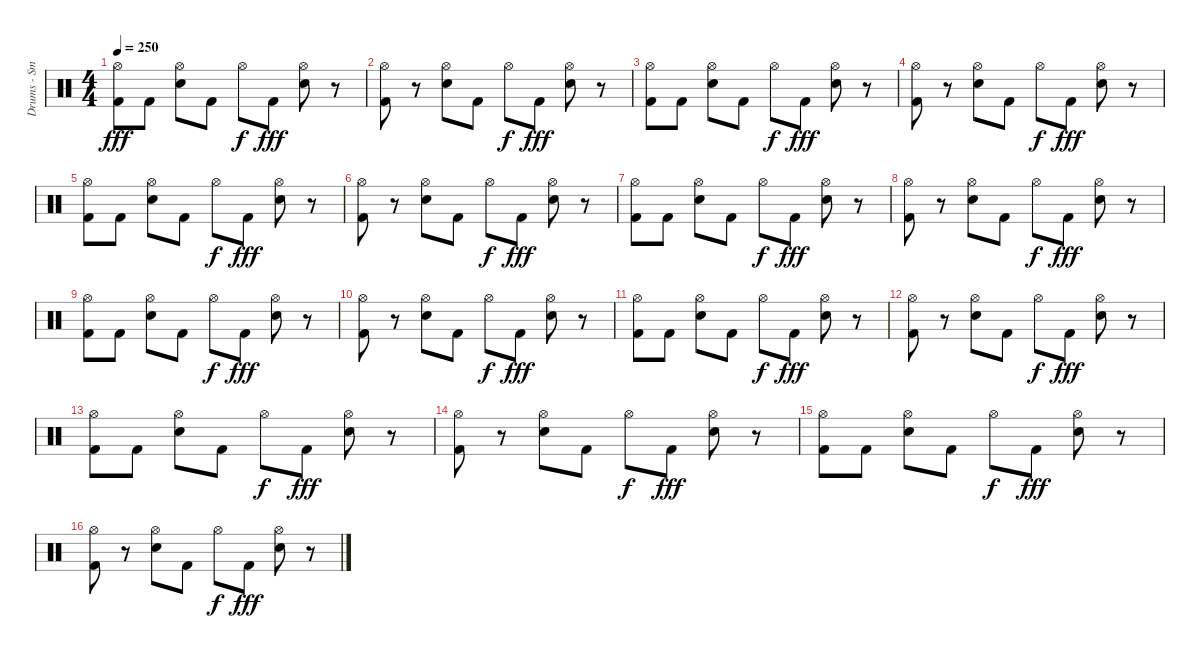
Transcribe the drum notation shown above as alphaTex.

\track ("Drums - Smelly" "Drums - Sm") {instrument percussion}
\staff {score}
\articulation defaults
\ts (4 4)
\tempo 250
\clef neutral
\ks c
("Hi-Hat (open)" "Kick (hit) 2").8{dy fff} "Kick (hit) 2".8 ("Electric Snare (hit)" "Hi-Hat (open)").8 "Kick (hit) 2".8 "Hi-Hat (open)".8{dy f} "Kick (hit) 2".8{dy fff} ("Electric Snare (hit)" "Hi-Hat (open)").8 r.8 |
("Kick (hit) 2" "Hi-Hat (open)").8 r.8 ("Hi-Hat (open)" "Electric Snare (hit)").8 "Kick (hit) 2".8 "Hi-Hat (open)".8{dy f} "Kick (hit) 2".8{dy fff} ("Hi-Hat (open)" "Electric Snare (hit)").8 r.8 |
("Hi-Hat (open)" "Kick (hit) 2").8 "Kick (hit) 2".8 ("Electric Snare (hit)" "Hi-Hat (open)").8 "Kick (hit) 2".8 "Hi-Hat (open)".8{dy f} "Kick (hit) 2".8{dy fff} ("Electric Snare (hit)" "Hi-Hat (open)").8 r.8 |
("Kick (hit) 2" "Hi-Hat (open)").8 r.8 ("Hi-Hat (open)" "Electric Snare (hit)").8 "Kick (hit) 2".8 "Hi-Hat (open)".8{dy f} "Kick (hit) 2".8{dy fff} ("Hi-Hat (open)" "Electric Snare (hit)").8 r.8 |
("Hi-Hat (open)" "Kick (hit) 2").8 "Kick (hit) 2".8 ("Electric Snare (hit)" "Hi-Hat (open)").8 "Kick (hit) 2".8 "Hi-Hat (open)".8{dy f} "Kick (hit) 2".8{dy fff} ("Electric Snare (hit)" "Hi-Hat (open)").8 r.8 |
("Kick (hit) 2" "Hi-Hat (open)").8 r.8 ("Hi-Hat (open)" "Electric Snare (hit)").8 "Kick (hit) 2".8 "Hi-Hat (open)".8{dy f} "Kick (hit) 2".8{dy fff} ("Hi-Hat (open)" "Electric Snare (hit)").8 r.8 |
("Hi-Hat (open)" "Kick (hit) 2").8 "Kick (hit) 2".8 ("Electric Snare (hit)" "Hi-Hat (open)").8 "Kick (hit) 2".8 "Hi-Hat (open)".8{dy f} "Kick (hit) 2".8{dy fff} ("Electric Snare (hit)" "Hi-Hat (open)").8 r.8 |
("Kick (hit) 2" "Hi-Hat (open)").8 r.8 ("Hi-Hat (open)" "Electric Snare (hit)").8 "Kick (hit) 2".8 "Hi-Hat (open)".8{dy f} "Kick (hit) 2".8{dy fff} ("Hi-Hat (open)" "Electric Snare (hit)").8 r.8 |
("Hi-Hat (open)" "Kick (hit) 2").8 "Kick (hit) 2".8 ("Electric Snare (hit)" "Hi-Hat (open)").8 "Kick (hit) 2".8 "Hi-Hat (open)".8{dy f} "Kick (hit) 2".8{dy fff} ("Electric Snare (hit)" "Hi-Hat (open)").8 r.8 |
("Kick (hit) 2" "Hi-Hat (open)").8 r.8 ("Hi-Hat (open)" "Electric Snare (hit)").8 "Kick (hit) 2".8 "Hi-Hat (open)".8{dy f} "Kick (hit) 2".8{dy fff} ("Hi-Hat (open)" "Electric Snare (hit)").8 r.8 |
("Hi-Hat (open)" "Kick (hit) 2").8 "Kick (hit) 2".8 ("Electric Snare (hit)" "Hi-Hat (open)").8 "Kick (hit) 2".8 "Hi-Hat (open)".8{dy f} "Kick (hit) 2".8{dy fff} ("Electric Snare (hit)" "Hi-Hat (open)").8 r.8 |
("Kick (hit) 2" "Hi-Hat (open)").8 r.8 ("Hi-Hat (open)" "Electric Snare (hit)").8 "Kick (hit) 2".8 "Hi-Hat (open)".8{dy f} "Kick (hit) 2".8{dy fff} ("Hi-Hat (open)" "Electric Snare (hit)").8 r.8 |
("Hi-Hat (open)" "Kick (hit) 2").8 "Kick (hit) 2".8 ("Electric Snare (hit)" "Hi-Hat (open)").8 "Kick (hit) 2".8 "Hi-Hat (open)".8{dy f} "Kick (hit) 2".8{dy fff} ("Electric Snare (hit)" "Hi-Hat (open)").8 r.8 |
("Kick (hit) 2" "Hi-Hat (open)").8 r.8 ("Hi-Hat (open)" "Electric Snare (hit)").8 "Kick (hit) 2".8 "Hi-Hat (open)".8{dy f} "Kick (hit) 2".8{dy fff} ("Hi-Hat (open)" "Electric Snare (hit)").8 r.8 |
("Hi-Hat (open)" "Kick (hit) 2").8 "Kick (hit) 2".8 ("Electric Snare (hit)" "Hi-Hat (open)").8 "Kick (hit) 2".8 "Hi-Hat (open)".8{dy f} "Kick (hit) 2".8{dy fff} ("Electric Snare (hit)" "Hi-Hat (open)").8 r.8 |
("Kick (hit) 2" "Hi-Hat (open)").8 r.8 ("Hi-Hat (open)" "Electric Snare (hit)").8 "Kick (hit) 2".8 "Hi-Hat (open)".8{dy f} "Kick (hit) 2".8{dy fff} ("Hi-Hat (open)" "Electric Snare (hit)").8 r.8
